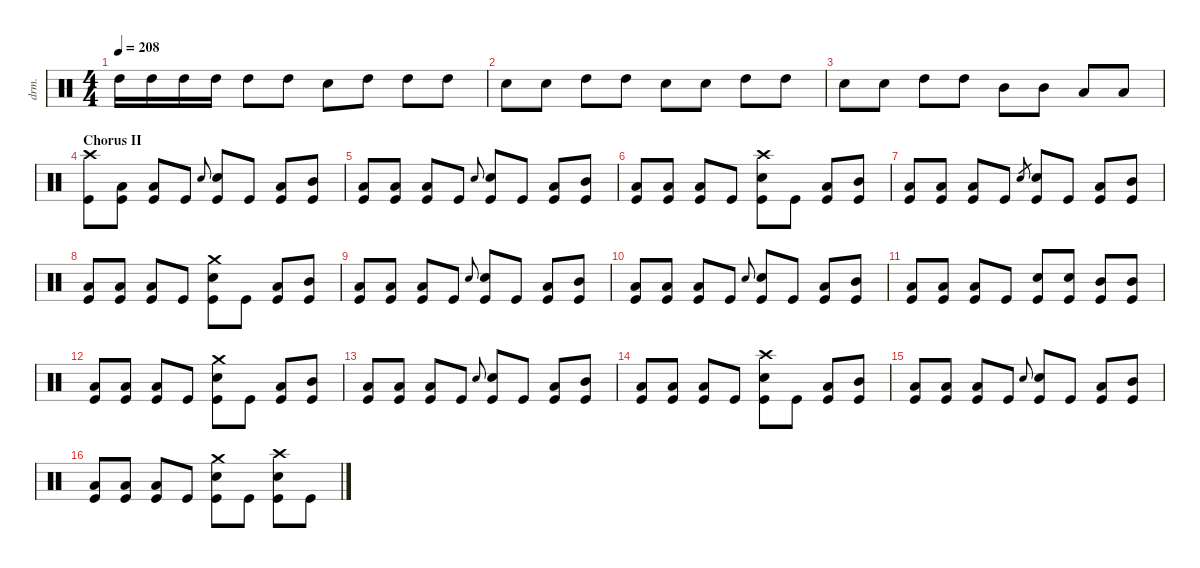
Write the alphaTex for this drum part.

\defaultSystemsLayout 4
\hideDynamics
\bracketExtendMode nobrackets
\otherSystemsTrackNameOrientation horizontal
\track ("Drums" "drm.") {multiBarRest instrument percussion}
\staff
\articulation defaults
\ts (4 4)
\tempo 208
\clef neutral
\ks c "High Tom (hit)".16{dy ff} "High Tom (hit)".16 "High Tom (hit)".16 "High Tom (hit)".16 "High Tom (hit)".8 "High Tom (hit)".8 "Snare (hit) 2".8{dy f} "High Tom (hit)".8{dy ff} "High Tom (hit)".8 "High Tom (hit)".8
|
"Snare (hit) 2".8{dy f} "Snare (hit) 2".8 "High Tom (hit)".8{dy ff} "High Tom (hit)".8 "Snare (hit) 2".8{dy f} "Snare (hit) 2".8 "High Tom (hit)".8{dy ff} "High Tom (hit)".8 |
"Snare (hit) 2".8{dy f} "Snare (hit) 2".8 "High Tom (hit)".8{dy ff} "High Tom (hit)".8 "Mid Tom (hit)".8 "Mid Tom (hit)".8 "Low Tom (hit)".8 "Low Tom (hit)".8 |
\section ("" "Chorus II")
("Kick (hit)" "Crash high (hit)").8{dy f} ("Kick (hit)" "Low Tom (hit)").8 ("Kick (hit)" "Low Tom (hit)").8 "Kick (hit)".8 "Snare (hit) 2".8{gr onbeat} ("Kick (hit)" "Snare (hit) 2").8 "Kick (hit)".8 ("Kick (hit)" "Low Tom (hit)").8 ("Kick (hit)" "Mid Tom (hit)").8 |
("Kick (hit)" "Low Tom (hit)").8 ("Kick (hit)" "Low Tom (hit)").8 ("Kick (hit)" "Low Tom (hit)").8 "Kick (hit)".8 "Snare (hit) 2".8{gr onbeat} ("Kick (hit)" "Snare (hit) 2").8 "Kick (hit)".8 ("Kick (hit)" "Low Tom (hit)").8 ("Kick (hit)" "Mid Tom (hit)").8 |
("Kick (hit)" "Low Tom (hit)").8 ("Kick (hit)" "Low Tom (hit)").8 ("Kick (hit)" "Low Tom (hit)").8 "Kick (hit)".8 ("Kick (hit)" "Snare (hit) 2" "Crash high (hit)").8 "Kick (hit)".8 ("Kick (hit)" "Low Tom (hit)").8 ("Kick (hit)" "Mid Tom (hit)").8 |
("Kick (hit)" "Low Tom (hit)").8 ("Kick (hit)" "Low Tom (hit)").8 ("Kick (hit)" "Low Tom (hit)").8 "Kick (hit)".8 "Snare (hit) 2".8{gr} ("Kick (hit)" "Snare (hit) 2").8 "Kick (hit)".8 ("Kick (hit)" "Low Tom (hit)").8 ("Kick (hit)" "Mid Tom (hit)").8 |
("Kick (hit)" "Low Tom (hit)").8 ("Kick (hit)" "Low Tom (hit)").8 ("Kick (hit)" "Low Tom (hit)").8 "Kick (hit)".8 ("Kick (hit)" "Snare (hit) 2" "Crash medium (hit)").8 "Kick (hit)".8 ("Kick (hit)" "Low Tom (hit)").8 ("Kick (hit)" "Mid Tom (hit)").8 |
("Kick (hit)" "Low Tom (hit)").8 ("Kick (hit)" "Low Tom (hit)").8 ("Kick (hit)" "Low Tom (hit)").8 "Kick (hit)".8 "Snare (hit) 2".8{gr onbeat} ("Kick (hit)" "Snare (hit) 2").8 "Kick (hit)".8 ("Kick (hit)" "Low Tom (hit)").8 ("Kick (hit)" "Mid Tom (hit)").8 |
("Kick (hit)" "Low Tom (hit)").8 ("Kick (hit)" "Low Tom (hit)").8 ("Kick (hit)" "Low Tom (hit)").8 "Kick (hit)".8 "Snare (hit) 2".8{gr onbeat} ("Kick (hit)" "Snare (hit) 2").8 "Kick (hit)".8 ("Kick (hit)" "Low Tom (hit)").8 ("Kick (hit)" "Mid Tom (hit)").8 |
("Kick (hit)" "Low Tom (hit)").8 ("Kick (hit)" "Low Tom (hit)").8 ("Kick (hit)" "Low Tom (hit)").8 "Kick (hit)".8 ("Kick (hit)" "Snare (hit) 2").8 ("Kick (hit)" "Snare (hit) 2").8 ("Kick (hit)" "Mid Tom (hit)").8 ("Kick (hit)" "Mid Tom (hit)").8 |
("Kick (hit)" "Low Tom (hit)").8 ("Kick (hit)" "Low Tom (hit)").8 ("Kick (hit)" "Low Tom (hit)").8 "Kick (hit)".8 ("Kick (hit)" "Snare (hit) 2" "Crash medium (hit)").8 "Kick (hit)".8 ("Kick (hit)" "Low Tom (hit)").8 ("Kick (hit)" "Mid Tom (hit)").8 |
("Kick (hit)" "Low Tom (hit)").8 ("Kick (hit)" "Low Tom (hit)").8 ("Kick (hit)" "Low Tom (hit)").8 "Kick (hit)".8 "Snare (hit) 2".8{gr onbeat} ("Kick (hit)" "Snare (hit) 2").8 "Kick (hit)".8 ("Kick (hit)" "Low Tom (hit)").8 ("Kick (hit)" "Mid Tom (hit)").8 |
("Kick (hit)" "Low Tom (hit)").8 ("Kick (hit)" "Low Tom (hit)").8 ("Kick (hit)" "Low Tom (hit)").8 "Kick (hit)".8 ("Kick (hit)" "Snare (hit) 2" "Crash high (hit)").8 "Kick (hit)".8 ("Kick (hit)" "Low Tom (hit)").8 ("Kick (hit)" "Mid Tom (hit)").8 |
("Kick (hit)" "Low Tom (hit)").8 ("Kick (hit)" "Low Tom (hit)").8 ("Kick (hit)" "Low Tom (hit)").8 "Kick (hit)".8 "Snare (hit) 2".8{gr onbeat} ("Kick (hit)" "Snare (hit) 2").8 "Kick (hit)".8 ("Kick (hit)" "Low Tom (hit)").8 ("Kick (hit)" "Mid Tom (hit)").8 |
("Kick (hit)" "Low Tom (hit)").8 ("Kick (hit)" "Low Tom (hit)").8 ("Kick (hit)" "Low Tom (hit)").8 "Kick (hit)".8 ("Kick (hit)" "Snare (hit) 2" "Crash medium (hit)").8 "Kick (hit)".8 ("Kick (hit)" "Snare (hit) 2" "Crash high (hit)").8 "Kick (hit)".8
